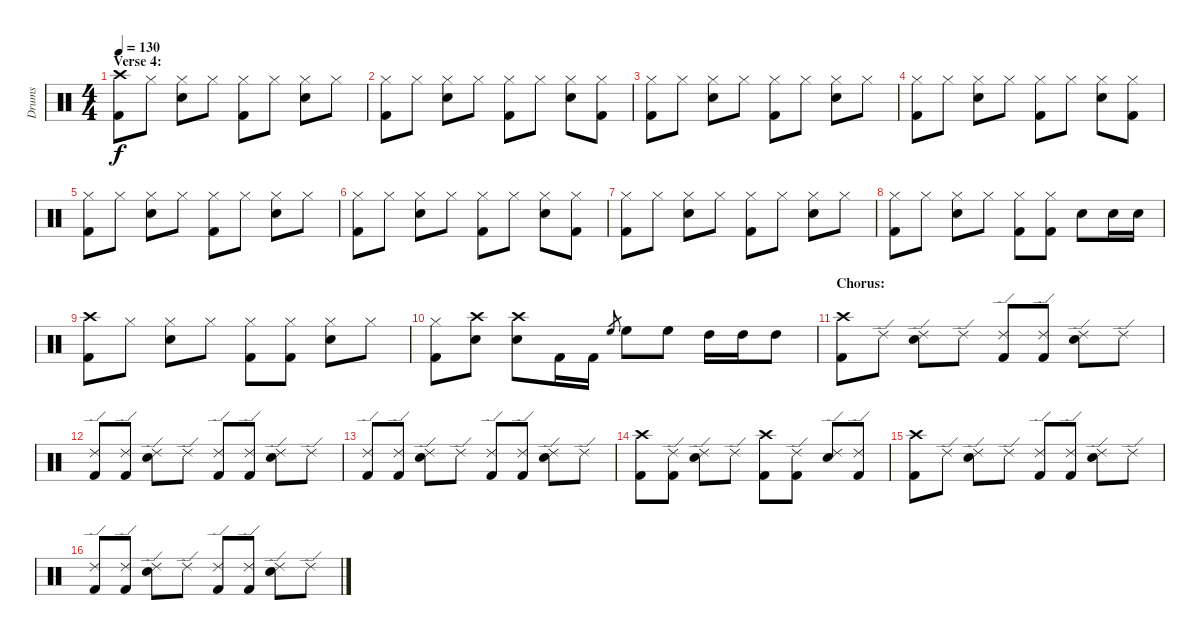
\track ("Drums" "Drums") {instrument percussion}
\staff {score}
\articulation defaults
\ts (4 4)
\section ("" "Verse 4:")
\tempo 130
\clef neutral
\ks c
("Crash high (hit)" "Kick (hit) 2").8{dy f} "Hi-Hat (closed)".8 ("Hi-Hat (closed)" "Electric Snare (hit)").8 "Hi-Hat (closed)".8 ("Hi-Hat (closed)" "Kick (hit) 2").8 "Hi-Hat (closed)".8 ("Hi-Hat (closed)" "Electric Snare (hit)").8 "Hi-Hat (closed)".8 |
("Hi-Hat (closed)" "Kick (hit) 2").8 "Hi-Hat (closed)".8 ("Hi-Hat (closed)" "Electric Snare (hit)").8 "Hi-Hat (closed)".8 ("Hi-Hat (closed)" "Kick (hit) 2").8 "Hi-Hat (closed)".8 ("Hi-Hat (closed)" "Electric Snare (hit)").8 ("Hi-Hat (closed)" "Kick (hit) 2").8 |
("Hi-Hat (closed)" "Kick (hit) 2").8 "Hi-Hat (closed)".8 ("Hi-Hat (closed)" "Electric Snare (hit)").8 "Hi-Hat (closed)".8 ("Hi-Hat (closed)" "Kick (hit) 2").8 "Hi-Hat (closed)".8 ("Hi-Hat (closed)" "Electric Snare (hit)").8 "Hi-Hat (closed)".8 |
("Hi-Hat (closed)" "Kick (hit) 2").8 "Hi-Hat (closed)".8 ("Hi-Hat (closed)" "Electric Snare (hit)").8 "Hi-Hat (closed)".8 ("Hi-Hat (closed)" "Kick (hit) 2").8 "Hi-Hat (closed)".8 ("Hi-Hat (closed)" "Electric Snare (hit)").8 ("Hi-Hat (closed)" "Kick (hit) 2").8 |
("Hi-Hat (closed)" "Kick (hit) 2").8 "Hi-Hat (closed)".8 ("Hi-Hat (closed)" "Electric Snare (hit)").8 "Hi-Hat (closed)".8 ("Hi-Hat (closed)" "Kick (hit) 2").8 "Hi-Hat (closed)".8 ("Hi-Hat (closed)" "Electric Snare (hit)").8 "Hi-Hat (closed)".8 |
("Hi-Hat (closed)" "Kick (hit) 2").8 "Hi-Hat (closed)".8 ("Hi-Hat (closed)" "Electric Snare (hit)").8 "Hi-Hat (closed)".8 ("Hi-Hat (closed)" "Kick (hit) 2").8 "Hi-Hat (closed)".8 ("Hi-Hat (closed)" "Electric Snare (hit)").8 ("Hi-Hat (closed)" "Kick (hit) 2").8 |
("Hi-Hat (closed)" "Kick (hit) 2").8 "Hi-Hat (closed)".8 ("Hi-Hat (closed)" "Electric Snare (hit)").8 "Hi-Hat (closed)".8 ("Hi-Hat (closed)" "Kick (hit) 2").8 "Hi-Hat (closed)".8 ("Hi-Hat (closed)" "Electric Snare (hit)").8 "Hi-Hat (closed)".8 |
("Hi-Hat (closed)" "Kick (hit) 2").8 "Hi-Hat (closed)".8 ("Hi-Hat (closed)" "Electric Snare (hit)").8 "Hi-Hat (closed)".8 ("Hi-Hat (closed)" "Kick (hit) 2").8 ("Hi-Hat (closed)" "Kick (hit) 2").8 "Electric Snare (hit)".8 "Electric Snare (hit)".16 "Electric Snare (hit)".16 |
("Crash high (hit)" "Kick (hit) 2").8 "Hi-Hat (closed)".8 ("Hi-Hat (closed)" "Electric Snare (hit)").8 "Hi-Hat (closed)".8 ("Hi-Hat (closed)" "Kick (hit) 2").8 ("Hi-Hat (closed)" "Kick (hit) 2").8 ("Hi-Hat (closed)" "Electric Snare (hit)").8 "Hi-Hat (closed)".8 |
("Hi-Hat (closed)" "Kick (hit) 2").8 ("Crash high (hit)" "Electric Snare (hit)").8 ("Crash high (hit)" "Electric Snare (hit)").8 "Kick (hit) 2".16 "Kick (hit) 2".16 "High Floor Tom (hit)".8{gr} "High Floor Tom (hit)".8 "High Floor Tom (hit)".8 "High Tom (hit)".16 "High Tom (hit)".16 "High Tom (hit)".8 |
\section ("" "Chorus:")
("Crash high (hit)" "Kick (hit) 2").8 "Ride (edge) 2".8 ("Ride (edge) 2" "Electric Snare (hit)").8 "Ride (edge) 2".8 ("Ride (edge) 2" "Kick (hit) 2").8 ("Ride (edge) 2" "Kick (hit) 2").8 ("Ride (edge) 2" "Electric Snare (hit)").8 "Ride (edge) 2".8 |
("Ride (edge) 2" "Kick (hit) 2").8 ("Ride (edge) 2" "Kick (hit) 2").8 ("Ride (edge) 2" "Electric Snare (hit)").8 "Ride (edge) 2".8 ("Ride (edge) 2" "Kick (hit) 2").8 ("Ride (edge) 2" "Kick (hit) 2").8 ("Ride (edge) 2" "Electric Snare (hit)").8 "Ride (edge) 2".8 |
("Ride (edge) 2" "Kick (hit) 2").8 ("Ride (edge) 2" "Kick (hit) 2").8 ("Ride (edge) 2" "Electric Snare (hit)").8 "Ride (edge) 2".8 ("Ride (edge) 2" "Kick (hit) 2").8 ("Ride (edge) 2" "Kick (hit) 2").8 ("Ride (edge) 2" "Electric Snare (hit)").8 "Ride (edge) 2".8 |
("Crash high (hit)" "Kick (hit) 2").8 ("Ride (edge) 2" "Kick (hit) 2").8 ("Ride (edge) 2" "Electric Snare (hit)").8 "Ride (edge) 2".8 ("Crash high (hit)" "Kick (hit) 2").8 ("Ride (edge) 2" "Kick (hit) 2").8 ("Ride (edge) 2" "Electric Snare (hit)").8 ("Ride (edge) 2" "Kick (hit) 2").8 |
("Crash high (hit)" "Kick (hit) 2").8 "Ride (edge) 2".8 ("Ride (edge) 2" "Electric Snare (hit)").8 "Ride (edge) 2".8 ("Ride (edge) 2" "Kick (hit) 2").8 ("Ride (edge) 2" "Kick (hit) 2").8 ("Ride (edge) 2" "Electric Snare (hit)").8 "Ride (edge) 2".8 |
("Ride (edge) 2" "Kick (hit) 2").8 ("Ride (edge) 2" "Kick (hit) 2").8 ("Ride (edge) 2" "Electric Snare (hit)").8 "Ride (edge) 2".8 ("Ride (edge) 2" "Kick (hit) 2").8 ("Ride (edge) 2" "Kick (hit) 2").8 ("Ride (edge) 2" "Electric Snare (hit)").8 "Ride (edge) 2".8
